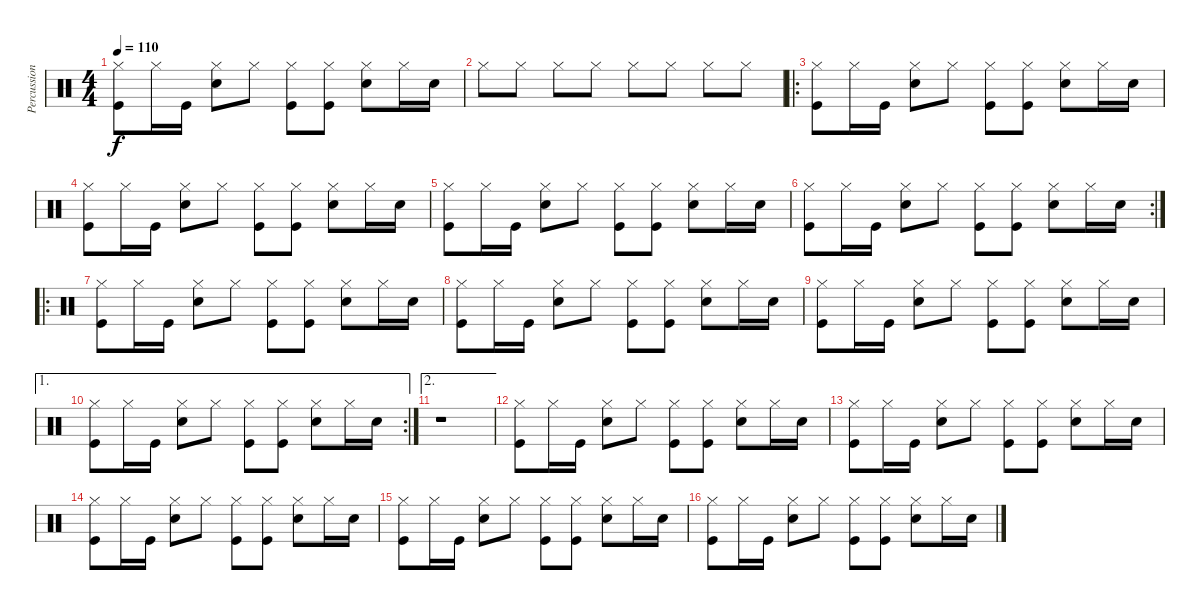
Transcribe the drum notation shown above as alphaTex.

\track ("Percussion" "Percussion") {instrument percussion}
\staff {score}
\articulation defaults
\ts (4 4)
\tempo 110
\clef neutral
\ks c
("Hi-Hat (closed)" "Kick (hit)").8{dy f} "Hi-Hat (closed)".16 "Kick (hit)".16 ("Hi-Hat (closed)" "Snare (hit) 2").8 "Hi-Hat (closed)".8 ("Hi-Hat (closed)" "Kick (hit)").8 ("Hi-Hat (closed)" "Kick (hit)").8 ("Hi-Hat (closed)" "Snare (hit) 2").8 "Hi-Hat (closed)".16 "Snare (hit) 2".16 |
"Hi-Hat (closed)".8 "Hi-Hat (closed)".8 "Hi-Hat (closed)".8 "Hi-Hat (closed)".8 "Hi-Hat (closed)".8 "Hi-Hat (closed)".8 "Hi-Hat (closed)".8 "Hi-Hat (closed)".8 |
\ro
("Hi-Hat (closed)" "Kick (hit)").8 "Hi-Hat (closed)".16 "Kick (hit)".16 ("Hi-Hat (closed)" "Snare (hit) 2").8 "Hi-Hat (closed)".8 ("Hi-Hat (closed)" "Kick (hit)").8 ("Hi-Hat (closed)" "Kick (hit)").8 ("Hi-Hat (closed)" "Snare (hit) 2").8 "Hi-Hat (closed)".16 "Snare (hit) 2".16 |
("Hi-Hat (closed)" "Kick (hit)").8 "Hi-Hat (closed)".16 "Kick (hit)".16 ("Hi-Hat (closed)" "Snare (hit) 2").8 "Hi-Hat (closed)".8 ("Hi-Hat (closed)" "Kick (hit)").8 ("Hi-Hat (closed)" "Kick (hit)").8 ("Hi-Hat (closed)" "Snare (hit) 2").8 "Hi-Hat (closed)".16 "Snare (hit) 2".16 |
("Hi-Hat (closed)" "Kick (hit)").8 "Hi-Hat (closed)".16 "Kick (hit)".16 ("Hi-Hat (closed)" "Snare (hit) 2").8 "Hi-Hat (closed)".8 ("Hi-Hat (closed)" "Kick (hit)").8 ("Hi-Hat (closed)" "Kick (hit)").8 ("Hi-Hat (closed)" "Snare (hit) 2").8 "Hi-Hat (closed)".16 "Snare (hit) 2".16 |
\rc 2
("Hi-Hat (closed)" "Kick (hit)").8 "Hi-Hat (closed)".16 "Kick (hit)".16 ("Hi-Hat (closed)" "Snare (hit) 2").8 "Hi-Hat (closed)".8 ("Hi-Hat (closed)" "Kick (hit)").8 ("Hi-Hat (closed)" "Kick (hit)").8 ("Hi-Hat (closed)" "Snare (hit) 2").8 "Hi-Hat (closed)".16 "Snare (hit) 2".16 |
\ro
("Hi-Hat (closed)" "Kick (hit)").8 "Hi-Hat (closed)".16 "Kick (hit)".16 ("Hi-Hat (closed)" "Snare (hit) 2").8 "Hi-Hat (closed)".8 ("Hi-Hat (closed)" "Kick (hit)").8 ("Hi-Hat (closed)" "Kick (hit)").8 ("Hi-Hat (closed)" "Snare (hit) 2").8 "Hi-Hat (closed)".16 "Snare (hit) 2".16 |
("Hi-Hat (closed)" "Kick (hit)").8 "Hi-Hat (closed)".16 "Kick (hit)".16 ("Hi-Hat (closed)" "Snare (hit) 2").8 "Hi-Hat (closed)".8 ("Hi-Hat (closed)" "Kick (hit)").8 ("Hi-Hat (closed)" "Kick (hit)").8 ("Hi-Hat (closed)" "Snare (hit) 2").8 "Hi-Hat (closed)".16 "Snare (hit) 2".16 |
("Hi-Hat (closed)" "Kick (hit)").8 "Hi-Hat (closed)".16 "Kick (hit)".16 ("Hi-Hat (closed)" "Snare (hit) 2").8 "Hi-Hat (closed)".8 ("Hi-Hat (closed)" "Kick (hit)").8 ("Hi-Hat (closed)" "Kick (hit)").8 ("Hi-Hat (closed)" "Snare (hit) 2").8 "Hi-Hat (closed)".16 "Snare (hit) 2".16 |
\ae 1
\rc 2
("Hi-Hat (closed)" "Kick (hit)").8 "Hi-Hat (closed)".16 "Kick (hit)".16 ("Hi-Hat (closed)" "Snare (hit) 2").8 "Hi-Hat (closed)".8 ("Hi-Hat (closed)" "Kick (hit)").8 ("Hi-Hat (closed)" "Kick (hit)").8 ("Hi-Hat (closed)" "Snare (hit) 2").8 "Hi-Hat (closed)".16 "Snare (hit) 2".16 |
\ae 2
r.1 |
("Hi-Hat (closed)" "Kick (hit)").8 "Hi-Hat (closed)".16 "Kick (hit)".16 ("Hi-Hat (closed)" "Snare (hit) 2").8 "Hi-Hat (closed)".8 ("Hi-Hat (closed)" "Kick (hit)").8 ("Hi-Hat (closed)" "Kick (hit)").8 ("Hi-Hat (closed)" "Snare (hit) 2").8 "Hi-Hat (closed)".16 "Snare (hit) 2".16 |
("Hi-Hat (closed)" "Kick (hit)").8 "Hi-Hat (closed)".16 "Kick (hit)".16 ("Hi-Hat (closed)" "Snare (hit) 2").8 "Hi-Hat (closed)".8 ("Hi-Hat (closed)" "Kick (hit)").8 ("Hi-Hat (closed)" "Kick (hit)").8 ("Hi-Hat (closed)" "Snare (hit) 2").8 "Hi-Hat (closed)".16 "Snare (hit) 2".16 |
("Hi-Hat (closed)" "Kick (hit)").8 "Hi-Hat (closed)".16 "Kick (hit)".16 ("Hi-Hat (closed)" "Snare (hit) 2").8 "Hi-Hat (closed)".8 ("Hi-Hat (closed)" "Kick (hit)").8 ("Hi-Hat (closed)" "Kick (hit)").8 ("Hi-Hat (closed)" "Snare (hit) 2").8 "Hi-Hat (closed)".16 "Snare (hit) 2".16 |
("Hi-Hat (closed)" "Kick (hit)").8 "Hi-Hat (closed)".16 "Kick (hit)".16 ("Hi-Hat (closed)" "Snare (hit) 2").8 "Hi-Hat (closed)".8 ("Hi-Hat (closed)" "Kick (hit)").8 ("Hi-Hat (closed)" "Kick (hit)").8 ("Hi-Hat (closed)" "Snare (hit) 2").8 "Hi-Hat (closed)".16 "Snare (hit) 2".16 |
("Hi-Hat (closed)" "Kick (hit)").8 "Hi-Hat (closed)".16 "Kick (hit)".16 ("Hi-Hat (closed)" "Snare (hit) 2").8 "Hi-Hat (closed)".8 ("Hi-Hat (closed)" "Kick (hit)").8 ("Hi-Hat (closed)" "Kick (hit)").8 ("Hi-Hat (closed)" "Snare (hit) 2").8 "Hi-Hat (closed)".16 "Snare (hit) 2".16
